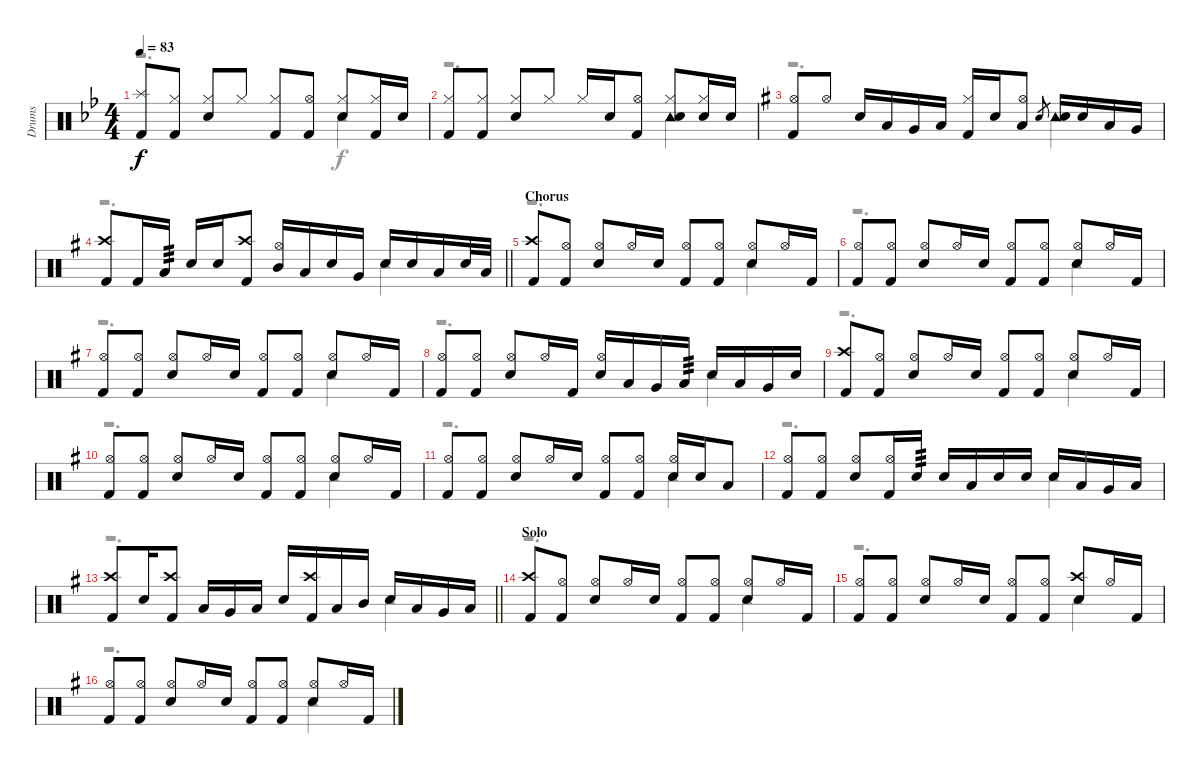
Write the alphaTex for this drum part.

\track ("Drums" "Drums") {instrument percussion}
\staff {score}
\articulation defaults
\voice
\ts (4 4)
\tempo 83
\clef neutral
\ks bb
("Splash (hit)" "Kick (hit) 2").8{dy f} ("Hi-Hat (closed)" "Kick (hit) 2").8 ("Hi-Hat (closed)" "Electric Snare (hit)").8 "Hi-Hat (closed)".8 ("Hi-Hat (closed)" "Kick (hit) 2").8 ("Hi-Hat (open)" "Kick (hit) 2").8 ("Hi-Hat (closed)" "Electric Snare (hit)").8 ("Hi-Hat (closed)" "Kick (hit) 2").16 "Electric Snare (hit)".16 |
("Hi-Hat (closed)" "Kick (hit) 2").8 ("Hi-Hat (closed)" "Kick (hit) 2").8 ("Hi-Hat (closed)" "Electric Snare (hit)").8 "Hi-Hat (closed)".8 "Hi-Hat (closed)".16 "Electric Snare (hit)".16 ("Hi-Hat (open)" "Kick (hit) 2").8 ("Hi-Hat (closed)" "Tambourine (hit)" "Electric Snare (hit)").8 ("Hi-Hat (closed)" "Electric Snare (hit)").16 "Electric Snare (hit)".16 |
\ks g
("Hi-Hat (open)" "Kick (hit) 2").8 "Hi-Hat (open)".8 "Electric Snare (hit)".16 "Low Tom (hit)".16 "Very Low Tom (hit)".16 "Low Floor Tom (hit)".16 ("Hi-Hat (closed)" "Kick (hit) 2").16 "Electric Snare (hit)".16 ("Hi-Hat (open)" "Low Tom (hit)").8 "Electric Snare (hit)".8{gr} ("Tambourine (hit)" "Electric Snare (hit)").16 "Electric Snare (hit)".16 "Low Tom (hit)".16 "Very Low Tom (hit)".16 |
\barLineRight lightlight
("Crash high (hit)" "Kick (hit) 2").8 "Kick (hit) 2".16 "Low Tom (hit)".16{tp 3} "Electric Snare (hit)".16 "Electric Snare (hit)".16 ("Crash high (hit)" "Kick (hit) 2").8 ("Hi-Hat (open)" "Mid Tom (hit)").16 "Low Tom (hit)".16 "Electric Snare (hit)".16 "Very Low Tom (hit)".16 "Electric Snare (hit)".16 "Electric Snare (hit)".16 "Low Tom (hit)".16 "Electric Snare (hit)".32 "Low Tom (hit)".32 |
\section ("" "Chorus")
("Crash high (hit)" "Kick (hit) 2").8 ("Hi-Hat (open)" "Kick (hit) 2").8 ("Hi-Hat (open)" "Electric Snare (hit)").8 "Hi-Hat (open)".16 "Electric Snare (hit)".16 ("Hi-Hat (open)" "Kick (hit) 2").8 ("Hi-Hat (open)" "Kick (hit) 2").8 ("Hi-Hat (open)" "Electric Snare (hit)").8 "Hi-Hat (open)".16 "Kick (hit) 2".16 |
("Hi-Hat (open)" "Kick (hit) 2").8 ("Hi-Hat (open)" "Kick (hit) 2").8 ("Hi-Hat (open)" "Electric Snare (hit)").8 "Hi-Hat (open)".16 "Electric Snare (hit)".16 ("Hi-Hat (open)" "Kick (hit) 2").8 ("Hi-Hat (open)" "Kick (hit) 2").8 ("Hi-Hat (open)" "Electric Snare (hit)").8 "Hi-Hat (open)".16 "Kick (hit) 2".16 |
("Hi-Hat (open)" "Kick (hit) 2").8 ("Hi-Hat (open)" "Kick (hit) 2").8 ("Hi-Hat (open)" "Electric Snare (hit)").8 "Hi-Hat (open)".16 "Electric Snare (hit)".16 ("Hi-Hat (open)" "Kick (hit) 2").8 ("Hi-Hat (open)" "Kick (hit) 2").8 ("Hi-Hat (open)" "Electric Snare (hit)").8 "Hi-Hat (open)".16 "Kick (hit) 2".16 |
("Hi-Hat (open)" "Kick (hit) 2").8 ("Hi-Hat (open)" "Kick (hit) 2").8 ("Hi-Hat (open)" "Electric Snare (hit)").8 "Hi-Hat (open)".16 "Kick (hit) 2".16 ("Hi-Hat (open)" "Electric Snare (hit)").16 "Low Tom (hit)".16 "Very Low Tom (hit)".16 "Low Floor Tom (hit)".16{tp 3} "Electric Snare (hit)".16 "Low Tom (hit)".16 "Very Low Tom (hit)".16 "Electric Snare (hit)".16 |
("Crash high (hit)" "Kick (hit) 2").8 ("Hi-Hat (open)" "Kick (hit) 2").8 ("Hi-Hat (open)" "Electric Snare (hit)").8 "Hi-Hat (open)".16 "Electric Snare (hit)".16 ("Hi-Hat (open)" "Kick (hit) 2").8 ("Hi-Hat (open)" "Kick (hit) 2").8 ("Hi-Hat (open)" "Electric Snare (hit)").8 "Hi-Hat (open)".16 "Kick (hit) 2".16 |
("Hi-Hat (open)" "Kick (hit) 2").8 ("Hi-Hat (open)" "Kick (hit) 2").8 ("Hi-Hat (open)" "Electric Snare (hit)").8 "Hi-Hat (open)".16 "Electric Snare (hit)".16 ("Hi-Hat (open)" "Kick (hit) 2").8 ("Hi-Hat (open)" "Kick (hit) 2").8 ("Hi-Hat (open)" "Electric Snare (hit)").8 "Hi-Hat (open)".16 "Kick (hit) 2".16 |
("Hi-Hat (open)" "Kick (hit) 2").8 ("Hi-Hat (open)" "Kick (hit) 2").8 ("Hi-Hat (open)" "Electric Snare (hit)").8 "Hi-Hat (open)".16 "Electric Snare (hit)".16 ("Hi-Hat (open)" "Kick (hit) 2").8 ("Hi-Hat (open)" "Kick (hit) 2").8 ("Hi-Hat (open)" "Electric Snare (hit)").16 "Electric Snare (hit)".16 "Low Tom (hit)".8 |
("Hi-Hat (open)" "Kick (hit) 2").8 ("Hi-Hat (open)" "Kick (hit) 2").8 ("Hi-Hat (open)" "Electric Snare (hit)").8 ("Hi-Hat (open)" "Kick (hit) 2").16 "Electric Snare (hit)".16{tp 3} "Electric Snare (hit)".16 "Low Tom (hit)".16 "Electric Snare (hit)".16 "Electric Snare (hit)".16 "Electric Snare (hit)".16 "Low Tom (hit)".16 "Very Low Tom (hit)".16 "Low Floor Tom (hit)".16 |
\barLineRight lightlight
("Crash high (hit)" "Kick (hit) 2").8 "Electric Snare (hit)".16 ("Crash high (hit)" "Kick (hit) 2").8 "Low Tom (hit)".16 "Very Low Tom (hit)".16 "Low Floor Tom (hit)".16 "Electric Snare (hit)".16 ("Crash high (hit)" "Kick (hit) 2").16 "Low Tom (hit)".16 "Mid Tom (hit)".16 "Electric Snare (hit)".16 "Low Tom (hit)".16 "Very Low Tom (hit)".16 "Low Floor Tom (hit)".16 |
\section ("" "Solo")
("Crash high (hit)" "Kick (hit) 2").8 ("Hi-Hat (open)" "Kick (hit) 2").8 ("Hi-Hat (open)" "Electric Snare (hit)").8 "Hi-Hat (open)".16 "Electric Snare (hit)".16 ("Hi-Hat (open)" "Kick (hit) 2").8 ("Hi-Hat (open)" "Kick (hit) 2").8 ("Hi-Hat (open)" "Electric Snare (hit)").8 "Hi-Hat (open)".16 "Kick (hit) 2".16 |
("Hi-Hat (open)" "Kick (hit) 2").8 ("Hi-Hat (open)" "Kick (hit) 2").8 ("Hi-Hat (open)" "Electric Snare (hit)").8 "Hi-Hat (open)".16 "Electric Snare (hit)".16 ("Hi-Hat (open)" "Kick (hit) 2").8 ("Hi-Hat (open)" "Kick (hit) 2").8 ("Crash high (hit)" "Electric Snare (hit)").8 "Hi-Hat (open)".16 "Kick (hit) 2".16 |
("Hi-Hat (open)" "Kick (hit) 2").8 ("Hi-Hat (open)" "Kick (hit) 2").8 ("Hi-Hat (open)" "Electric Snare (hit)").8 "Hi-Hat (open)".16 "Electric Snare (hit)".16 ("Hi-Hat (open)" "Kick (hit) 2").8 ("Hi-Hat (open)" "Kick (hit) 2").8 ("Hi-Hat (open)" "Electric Snare (hit)").8 "Hi-Hat (open)".16 "Kick (hit) 2".16
\voice
\clef neutral
\ottava regular
\simile none
\ks bb
r.2{d dy f} "Tambourine (hit)".4 |
r.2{d} "Tambourine (hit)".4 |
\ks g
r.2{d} "Tambourine (hit)".4 |
\barLineRight lightlight
r.2{d} "Tambourine (hit)".4 |
r.2{d} "Tambourine (hit)".4 |
r.2{d} "Tambourine (hit)".4 |
r.2{d} "Tambourine (hit)".4 |
r.2{d} "Tambourine (hit)".4 |
r.2{d} "Tambourine (hit)".4 |
r.2{d} "Tambourine (hit)".4 |
r.2{d} "Tambourine (hit)".4 |
r.2{d} "Tambourine (hit)".4 |
\barLineRight lightlight
r.2{d} "Tambourine (hit)".4 |
r.2{d} "Tambourine (hit)".4 |
r.2{d} "Tambourine (hit)".4 |
r.2{d} "Tambourine (hit)".4
